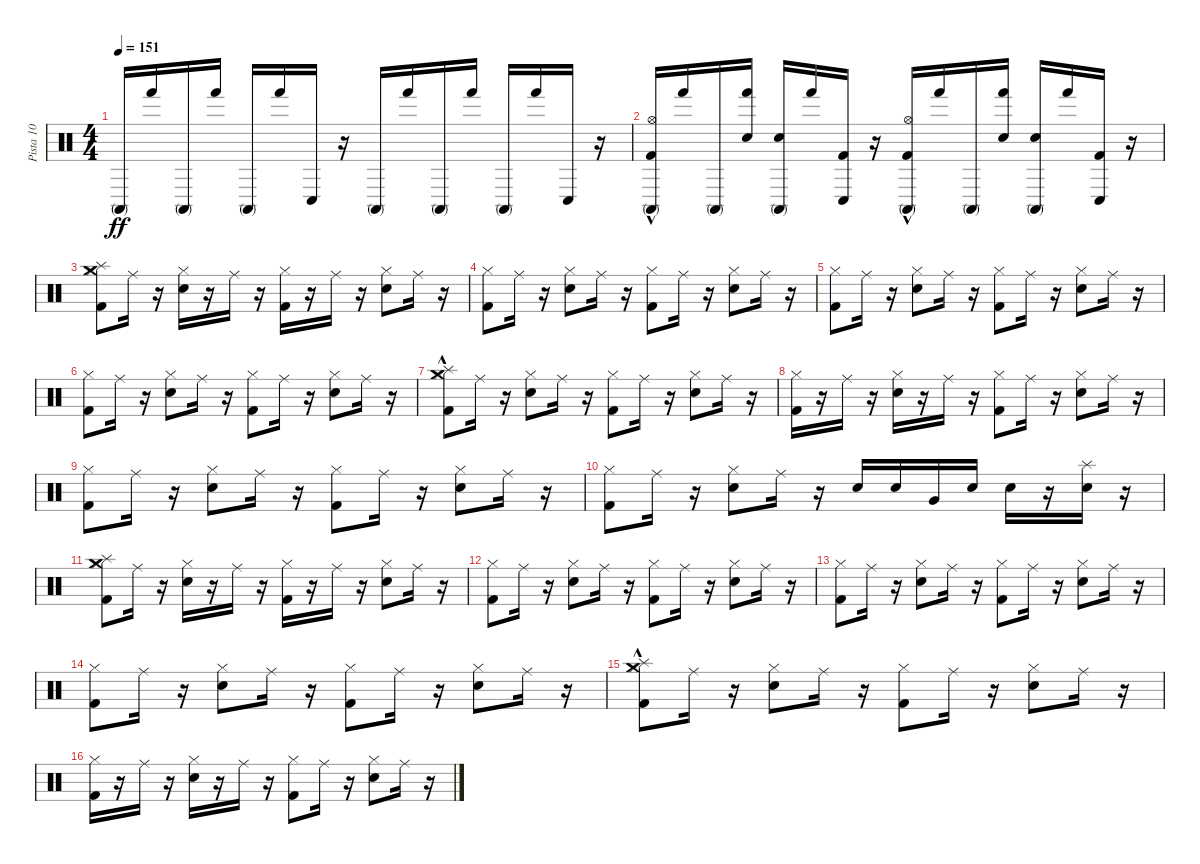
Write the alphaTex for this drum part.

\track ("Pista 10" "Pista 10") {instrument percussion}
\staff {score}
\articulation defaults
\ts (4 4)
\tempo 151
\clef neutral
\ks c "Conga high (mute)".16{dy ff} "Hand (hit)".16 "Conga high (mute)".16 "Hand (hit)".16 "Conga high (mute)".16 "Hand (hit)".16 "Conga low (hit)".16
r.16 "Conga high (mute)".16 "Hand (hit)".16 "Conga high (mute)".16 "Hand (hit)".16 "Conga high (mute)".16 "Hand (hit)".16 "Conga low (hit)".16 r.16 |
("Kick (hit) 2"{hac} "Conga high (mute)" "Hi-Hat (open)"{hac}).16 "Hand (hit)".16 "Conga high (mute)".16 ("Snare (hit) 2" "Hand (hit)").16 ("Snare (hit) 2" "Conga high (mute)").16 "Hand (hit)".16 ("Kick (hit) 2" "Conga low (hit)").16 r.16 ("Kick (hit) 2" "Conga high (mute)" "Hi-Hat (open)"{hac}).16 "Hand (hit)".16 "Conga high (mute)".16 ("Snare (hit) 2" "Hand (hit)").16 ("Snare (hit) 2" "Conga high (mute)").16 "Hand (hit)".16 ("Kick (hit) 2" "Conga low (hit)").16 r.16 |
("Kick (hit) 2" "Hi-Hat (closed)" "Crash medium (hit)" "Splash (hit)").8 "Ride (middle)".16 r.16 ("Snare (hit) 2" "Hi-Hat (closed)").16 r.16 "Ride (middle)".16 r.16 ("Kick (hit) 2" "Hi-Hat (closed)").16 r.16 "Ride (middle)".16 r.16 ("Hi-Hat (closed)" "Snare (hit) 2").8 "Ride (middle)".16 r.16 |
("Hi-Hat (closed)" "Kick (hit) 2").8 "Ride (middle)".16 r.16 ("Hi-Hat (closed)" "Snare (hit) 2").8 "Ride (middle)".16 r.16 ("Hi-Hat (closed)" "Kick (hit) 2").8 "Ride (middle)".16 r.16 ("Hi-Hat (closed)" "Snare (hit) 2").8 "Ride (middle)".16 r.16 |
("Hi-Hat (closed)" "Kick (hit) 2").8 "Ride (middle)".16 r.16 ("Hi-Hat (closed)" "Snare (hit) 2").8 "Ride (middle)".16 r.16 ("Kick (hit) 2" "Hi-Hat (closed)").8 "Ride (middle)".16 r.16 ("Snare (hit) 2" "Hi-Hat (closed)").8 "Ride (middle)".16 r.16 |
("Kick (hit) 2" "Hi-Hat (closed)").8 "Ride (middle)".16 r.16 ("Hi-Hat (closed)" "Snare (hit) 2").8 "Ride (middle)".16 r.16 ("Hi-Hat (closed)" "Kick (hit) 2").8 "Ride (middle)".16 r.16 ("Hi-Hat (closed)" "Snare (hit) 2").8 "Ride (middle)".16 r.16 |
("Crash medium (hit)"{hac} "Splash (hit)"{hac} "Hi-Hat (closed)" "Kick (hit) 2").8 "Ride (middle)".16 r.16 ("Hi-Hat (closed)" "Snare (hit) 2").8 "Ride (middle)".16 r.16 ("Hi-Hat (closed)" "Kick (hit) 2").8 "Ride (middle)".16 r.16 ("Hi-Hat (closed)" "Snare (hit) 2").8 "Ride (middle)".16 r.16 |
("Hi-Hat (closed)" "Kick (hit) 2").16 r.16 "Ride (middle)".16 r.16 ("Snare (hit) 2" "Hi-Hat (closed)").16 r.16 "Ride (middle)".16 r.16 ("Kick (hit) 2" "Hi-Hat (closed)").8 "Ride (middle)".16 r.16 ("Hi-Hat (closed)" "Snare (hit) 2").8 "Ride (middle)".16 r.16 |
("Hi-Hat (closed)" "Kick (hit) 2").8 "Ride (middle)".16 r.16 ("Hi-Hat (closed)" "Snare (hit) 2").8 "Ride (middle)".16 r.16 ("Hi-Hat (closed)" "Kick (hit) 2").8 "Ride (middle)".16 r.16 ("Hi-Hat (closed)" "Snare (hit) 2").8 "Ride (middle)".16 r.16 |
("Hi-Hat (closed)" "Kick (hit) 2").8 "Ride (middle)".16 r.16 ("Hi-Hat (closed)" "Snare (hit) 2").8 "Ride (middle)".16 r.16 "Snare (hit) 2".16 "Snare (hit) 2".16 "Very Low Tom (hit)".16 "Snare (hit) 2".16 "Snare (hit) 2".16 r.16 ("Splash (hit)" "Snare (hit) 2").16 r.16 |
("Crash medium (hit)" "Splash (hit)" "Kick (hit) 2" "Hi-Hat (closed)").8 "Ride (middle)".16 r.16 ("Snare (hit) 2" "Hi-Hat (closed)").16 r.16 "Ride (middle)".16 r.16 ("Hi-Hat (closed)" "Kick (hit) 2").16 r.16 "Ride (middle)".16 r.16 ("Hi-Hat (closed)" "Snare (hit) 2").8 "Ride (middle)".16 r.16 |
("Hi-Hat (closed)" "Kick (hit) 2").8 "Ride (middle)".16 r.16 ("Hi-Hat (closed)" "Snare (hit) 2").8 "Ride (middle)".16 r.16 ("Hi-Hat (closed)" "Kick (hit) 2").8 "Ride (middle)".16 r.16 ("Hi-Hat (closed)" "Snare (hit) 2").8 "Ride (middle)".16 r.16 |
("Hi-Hat (closed)" "Kick (hit) 2").8 "Ride (middle)".16 r.16 ("Snare (hit) 2" "Hi-Hat (closed)").8 "Ride (middle)".16 r.16 ("Kick (hit) 2" "Hi-Hat (closed)").8 "Ride (middle)".16 r.16 ("Snare (hit) 2" "Hi-Hat (closed)").8 "Ride (middle)".16 r.16 |
("Hi-Hat (closed)" "Kick (hit) 2").8 "Ride (middle)".16 r.16 ("Hi-Hat (closed)" "Snare (hit) 2").8 "Ride (middle)".16 r.16 ("Hi-Hat (closed)" "Kick (hit) 2").8 "Ride (middle)".16 r.16 ("Hi-Hat (closed)" "Snare (hit) 2").8 "Ride (middle)".16 r.16 |
("Crash medium (hit)"{hac} "Splash (hit)"{hac} "Hi-Hat (closed)" "Kick (hit) 2").8 "Ride (middle)".16 r.16 ("Hi-Hat (closed)" "Snare (hit) 2").8 "Ride (middle)".16 r.16 ("Hi-Hat (closed)" "Kick (hit) 2").8 "Ride (middle)".16 r.16 ("Snare (hit) 2" "Hi-Hat (closed)").8 "Ride (middle)".16 r.16 |
("Kick (hit) 2" "Hi-Hat (closed)").16 r.16 "Ride (middle)".16 r.16 ("Snare (hit) 2" "Hi-Hat (closed)").16 r.16 "Ride (middle)".16 r.16 ("Hi-Hat (closed)" "Kick (hit) 2").8 "Ride (middle)".16 r.16 ("Hi-Hat (closed)" "Snare (hit) 2").8 "Ride (middle)".16 r.16
